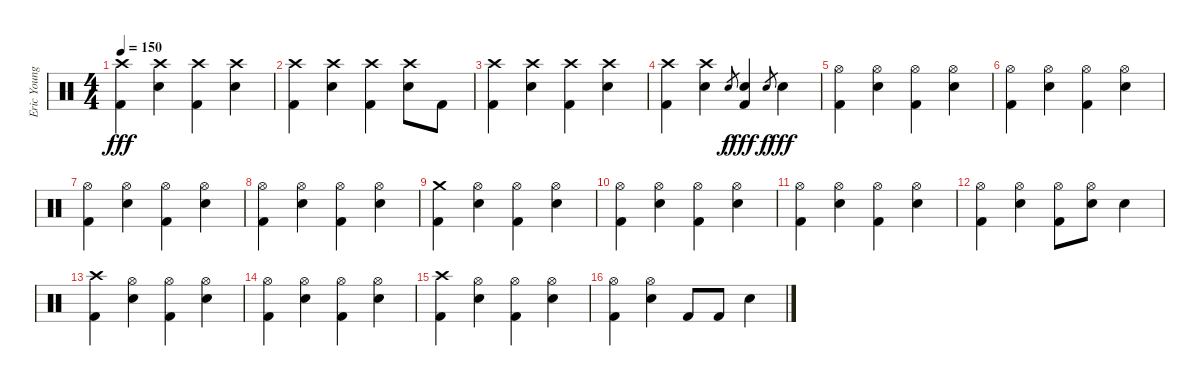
\track ("Eric Young" "Eric Young") {instrument percussion}
\staff {score}
\articulation defaults
\ts (4 4)
\tempo 150
\clef neutral
\ks c
("Crash high (hit)" "Kick (hit) 2").4{dy fff} ("Crash high (hit)" "Electric Snare (hit)").4 ("Crash high (hit)" "Kick (hit) 2").4 ("Crash high (hit)" "Electric Snare (hit)").4 |
("Crash high (hit)" "Kick (hit) 2").4 ("Crash high (hit)" "Electric Snare (hit)").4 ("Crash high (hit)" "Kick (hit) 2").4 ("Crash high (hit)" "Electric Snare (hit)").8 "Kick (hit) 2".8 |
("Crash high (hit)" "Kick (hit) 2").4 ("Crash high (hit)" "Electric Snare (hit)").4 ("Crash high (hit)" "Kick (hit) 2").4 ("Crash high (hit)" "Electric Snare (hit)").4 |
("Crash high (hit)" "Kick (hit) 2").4 ("Crash high (hit)" "Electric Snare (hit)").4 "Electric Snare (hit)".8{gr dy f} ("Electric Snare (hit)" "Kick (hit) 2").4{dy fff} "Electric Snare (hit)".8{gr dy f} "Electric Snare (hit)".4{dy fff} |
("Hi-Hat (open)" "Kick (hit) 2").4 ("Hi-Hat (open)" "Electric Snare (hit)").4 ("Hi-Hat (open)" "Kick (hit) 2").4 ("Hi-Hat (open)" "Electric Snare (hit)").4 |
("Hi-Hat (open)" "Kick (hit) 2").4 ("Hi-Hat (open)" "Electric Snare (hit)").4 ("Hi-Hat (open)" "Kick (hit) 2").4 ("Hi-Hat (open)" "Electric Snare (hit)").4 |
("Hi-Hat (open)" "Kick (hit) 2").4 ("Hi-Hat (open)" "Electric Snare (hit)").4 ("Hi-Hat (open)" "Kick (hit) 2").4 ("Hi-Hat (open)" "Electric Snare (hit)").4 |
("Hi-Hat (open)" "Kick (hit) 2").4 ("Hi-Hat (open)" "Electric Snare (hit)").4 ("Hi-Hat (open)" "Kick (hit) 2").4 ("Hi-Hat (open)" "Electric Snare (hit)").4 |
("Crash medium (hit)" "Kick (hit) 2").4 ("Hi-Hat (open)" "Electric Snare (hit)").4 ("Hi-Hat (open)" "Kick (hit) 2").4 ("Hi-Hat (open)" "Electric Snare (hit)").4 |
("Hi-Hat (open)" "Kick (hit) 2").4 ("Hi-Hat (open)" "Electric Snare (hit)").4 ("Hi-Hat (open)" "Kick (hit) 2").4 ("Hi-Hat (open)" "Electric Snare (hit)").4 |
("Hi-Hat (open)" "Kick (hit) 2").4 ("Hi-Hat (open)" "Electric Snare (hit)").4 ("Hi-Hat (open)" "Kick (hit) 2").4 ("Hi-Hat (open)" "Electric Snare (hit)").4 |
("Hi-Hat (open)" "Kick (hit) 2").4 ("Hi-Hat (open)" "Electric Snare (hit)").4 ("Hi-Hat (open)" "Kick (hit) 2").8 ("Hi-Hat (open)" "Electric Snare (hit)").8 "Electric Snare (hit)".4 |
("Crash high (hit)" "Kick (hit) 2").4 ("Hi-Hat (open)" "Electric Snare (hit)").4 ("Hi-Hat (open)" "Kick (hit) 2").4 ("Hi-Hat (open)" "Electric Snare (hit)").4 |
("Hi-Hat (open)" "Kick (hit) 2").4 ("Hi-Hat (open)" "Electric Snare (hit)").4 ("Hi-Hat (open)" "Kick (hit) 2").4 ("Hi-Hat (open)" "Electric Snare (hit)").4 |
("Crash high (hit)" "Kick (hit) 2").4 ("Hi-Hat (open)" "Electric Snare (hit)").4 ("Hi-Hat (open)" "Kick (hit) 2").4 ("Hi-Hat (open)" "Electric Snare (hit)").4 |
("Hi-Hat (open)" "Kick (hit) 2").4 ("Hi-Hat (open)" "Electric Snare (hit)").4 "Kick (hit) 2".8 "Kick (hit) 2".8 "Electric Snare (hit)".4
